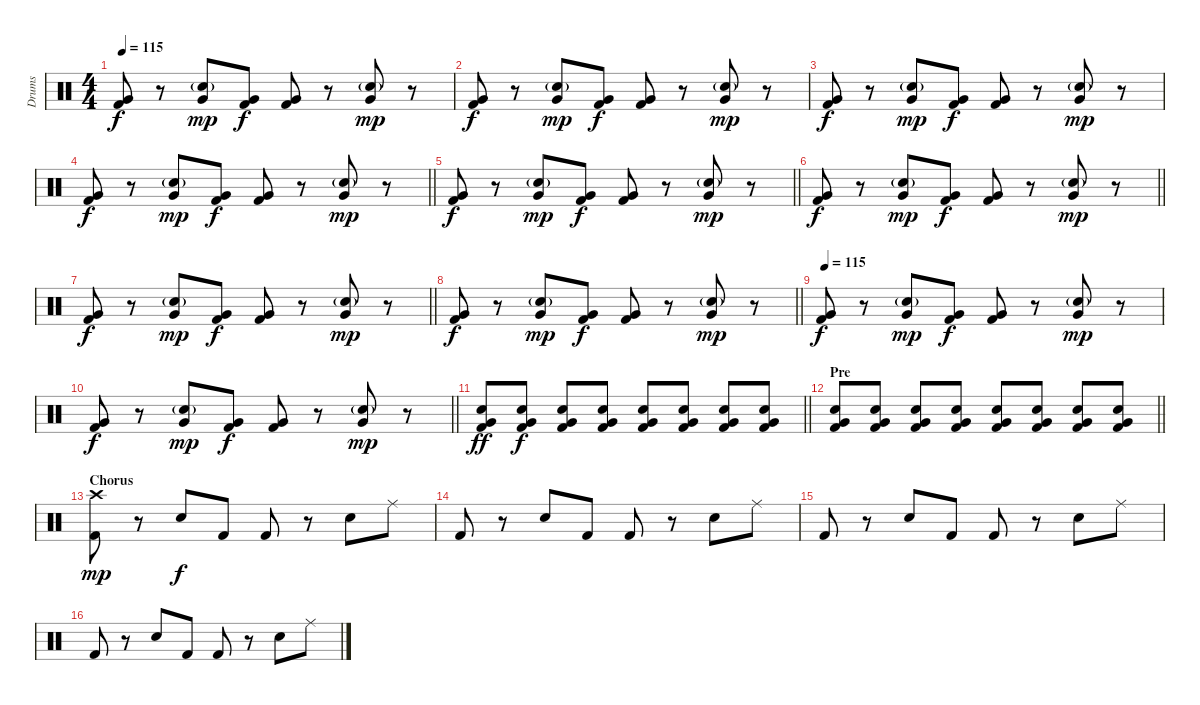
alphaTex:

\track ("Drums" "Drums") {instrument percussion}
\staff {score}
\articulation defaults
\ts (4 4)
\tempo 115
\clef neutral
\ks c
("Very Low Tom (hit)" "Kick (hit) 2").8{dy f} r.8 ("Snare (hit) 2"{g} "Very Low Tom (hit)").8{dy mp} ("Very Low Tom (hit)" "Kick (hit) 2").8{dy f} ("Very Low Tom (hit)" "Kick (hit) 2").8 r.8 ("Snare (hit) 2"{g} "Very Low Tom (hit)").8{dy mp} r.8 |
("Very Low Tom (hit)" "Kick (hit) 2").8{dy f} r.8 ("Snare (hit) 2"{g} "Very Low Tom (hit)").8{dy mp} ("Very Low Tom (hit)" "Kick (hit) 2").8{dy f} ("Very Low Tom (hit)" "Kick (hit) 2").8 r.8 ("Snare (hit) 2"{g} "Very Low Tom (hit)").8{dy mp} r.8 |
("Very Low Tom (hit)" "Kick (hit) 2").8{dy f} r.8 ("Snare (hit) 2"{g} "Very Low Tom (hit)").8{dy mp} ("Very Low Tom (hit)" "Kick (hit) 2").8{dy f} ("Very Low Tom (hit)" "Kick (hit) 2").8 r.8 ("Snare (hit) 2"{g} "Very Low Tom (hit)").8{dy mp} r.8 |
\barLineRight lightlight
("Very Low Tom (hit)" "Kick (hit) 2").8{dy f} r.8 ("Snare (hit) 2"{g} "Very Low Tom (hit)").8{dy mp} ("Very Low Tom (hit)" "Kick (hit) 2").8{dy f} ("Very Low Tom (hit)" "Kick (hit) 2").8 r.8 ("Snare (hit) 2"{g} "Very Low Tom (hit)").8{dy mp} r.8 |
\barLineRight lightlight
("Very Low Tom (hit)" "Kick (hit) 2").8{dy f} r.8 ("Snare (hit) 2"{g} "Very Low Tom (hit)").8{dy mp} ("Very Low Tom (hit)" "Kick (hit) 2").8{dy f} ("Very Low Tom (hit)" "Kick (hit) 2").8 r.8 ("Snare (hit) 2"{g} "Very Low Tom (hit)").8{dy mp} r.8 |
\barLineRight lightlight
("Very Low Tom (hit)" "Kick (hit) 2").8{dy f} r.8 ("Snare (hit) 2"{g} "Very Low Tom (hit)").8{dy mp} ("Very Low Tom (hit)" "Kick (hit) 2").8{dy f} ("Very Low Tom (hit)" "Kick (hit) 2").8 r.8 ("Snare (hit) 2"{g} "Very Low Tom (hit)").8{dy mp} r.8 |
\barLineRight lightlight
("Very Low Tom (hit)" "Kick (hit) 2").8{dy f} r.8 ("Snare (hit) 2"{g} "Very Low Tom (hit)").8{dy mp} ("Very Low Tom (hit)" "Kick (hit) 2").8{dy f} ("Very Low Tom (hit)" "Kick (hit) 2").8 r.8 ("Snare (hit) 2"{g} "Very Low Tom (hit)").8{dy mp} r.8 |
\barLineRight lightlight
("Very Low Tom (hit)" "Kick (hit) 2").8{dy f} r.8 ("Snare (hit) 2"{g} "Very Low Tom (hit)").8{dy mp} ("Very Low Tom (hit)" "Kick (hit) 2").8{dy f} ("Very Low Tom (hit)" "Kick (hit) 2").8 r.8 ("Snare (hit) 2"{g} "Very Low Tom (hit)").8{dy mp} r.8 |
\tempo 115
("Very Low Tom (hit)" "Kick (hit) 2").8{dy f} r.8 ("Snare (hit) 2"{g} "Very Low Tom (hit)").8{dy mp} ("Very Low Tom (hit)" "Kick (hit) 2").8{dy f} ("Very Low Tom (hit)" "Kick (hit) 2").8 r.8 ("Snare (hit) 2"{g} "Very Low Tom (hit)").8{dy mp} r.8 |
\barLineRight lightlight
("Very Low Tom (hit)" "Kick (hit) 2").8{dy f} r.8 ("Snare (hit) 2"{g} "Very Low Tom (hit)").8{dy mp} ("Very Low Tom (hit)" "Kick (hit) 2").8{dy f} ("Very Low Tom (hit)" "Kick (hit) 2").8 r.8 ("Snare (hit) 2"{g} "Very Low Tom (hit)").8{dy mp} r.8 |
\barLineRight lightlight
("Electric Snare (hit)" "Very Low Tom (hit)" "Kick (hit) 2").8{dy ff volume 2} ("Electric Snare (hit)" "Very Low Tom (hit)" "Kick (hit) 2").8{dy f volume 16} ("Electric Snare (hit)" "Very Low Tom (hit)" "Kick (hit) 2").8 ("Electric Snare (hit)" "Very Low Tom (hit)" "Kick (hit) 2").8 ("Electric Snare (hit)" "Very Low Tom (hit)" "Kick (hit) 2").8 ("Electric Snare (hit)" "Very Low Tom (hit)" "Kick (hit) 2").8 ("Electric Snare (hit)" "Very Low Tom (hit)" "Kick (hit) 2").8 ("Electric Snare (hit)" "Very Low Tom (hit)" "Kick (hit) 2").8 |
\section ("" "Pre")
\barLineRight lightlight
("Electric Snare (hit)" "Very Low Tom (hit)" "Kick (hit) 2").8 ("Electric Snare (hit)" "Very Low Tom (hit)" "Kick (hit) 2").8 ("Electric Snare (hit)" "Very Low Tom (hit)" "Kick (hit) 2").8 ("Electric Snare (hit)" "Very Low Tom (hit)" "Kick (hit) 2").8 ("Electric Snare (hit)" "Very Low Tom (hit)" "Kick (hit) 2").8 ("Electric Snare (hit)" "Very Low Tom (hit)" "Kick (hit) 2").8 ("Electric Snare (hit)" "Very Low Tom (hit)" "Kick (hit) 2").8 ("Electric Snare (hit)" "Very Low Tom (hit)" "Kick (hit) 2").8 |
\section ("" "Chorus")
("Crash high (hit)" "Kick (hit) 2").8{dy mp} r.8 "Electric Snare (hit)".8{dy f} "Kick (hit) 2".8 "Kick (hit) 2".8 r.8 "Electric Snare (hit)".8 "Ride (middle)".8 |
"Kick (hit) 2".8 r.8 "Electric Snare (hit)".8 "Kick (hit) 2".8 "Kick (hit) 2".8 r.8 "Electric Snare (hit)".8 "Ride (middle)".8 |
"Kick (hit) 2".8 r.8 "Electric Snare (hit)".8 "Kick (hit) 2".8 "Kick (hit) 2".8 r.8 "Electric Snare (hit)".8 "Ride (middle)".8 |
"Kick (hit) 2".8 r.8 "Electric Snare (hit)".8 "Kick (hit) 2".8 "Kick (hit) 2".8 r.8 "Electric Snare (hit)".8 "Ride (middle)".8
